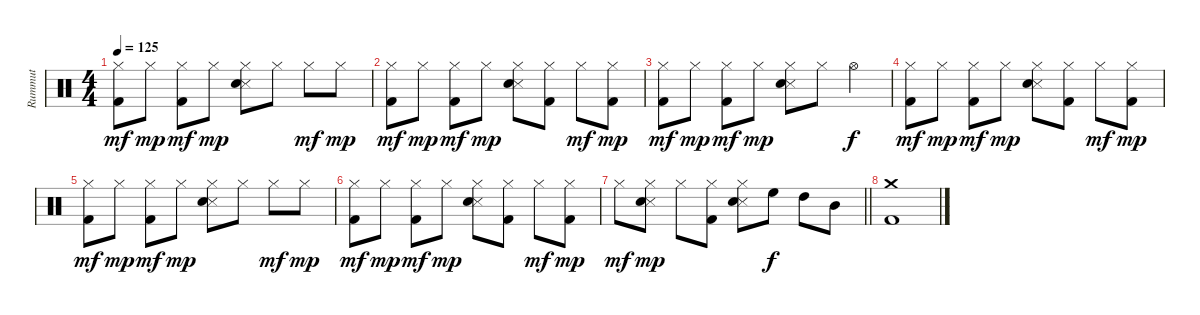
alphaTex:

\track ("Rummut" "Rummut") {instrument percussion}
\staff {score}
\articulation defaults
\ts (4 4)
\tempo 125
\clef neutral
\ks c
("Hi-Hat (closed)" "Kick (hit) 2").8{dy mf} "Hi-Hat (closed)".8{dy mp} ("Hi-Hat (closed)" "Kick (hit) 2").8{dy mf} "Hi-Hat (closed)".8{dy mp} ("Hi-Hat (closed)" "Snare (side stick) 3" "Electric Snare (hit)").8 "Hi-Hat (closed)".8 "Hi-Hat (closed)".8{dy mf} "Hi-Hat (closed)".8{dy mp} |
("Hi-Hat (closed)" "Kick (hit) 2").8{dy mf} "Hi-Hat (closed)".8{dy mp} ("Hi-Hat (closed)" "Kick (hit) 2").8{dy mf} "Hi-Hat (closed)".8{dy mp} ("Hi-Hat (closed)" "Snare (side stick) 3" "Electric Snare (hit)").8 ("Hi-Hat (closed)" "Kick (hit) 2").8 "Hi-Hat (closed)".8{dy mf} ("Hi-Hat (closed)" "Kick (hit) 2").8{dy mp} |
("Hi-Hat (closed)" "Kick (hit) 2").8{dy mf} "Hi-Hat (closed)".8{dy mp} ("Hi-Hat (closed)" "Kick (hit) 2").8{dy mf} "Hi-Hat (closed)".8{dy mp} ("Hi-Hat (closed)" "Snare (side stick) 3" "Electric Snare (hit)").8 "Hi-Hat (closed)".8 "Hi-Hat (open)".4{dy f} |
("Hi-Hat (closed)" "Kick (hit) 2").8{dy mf} "Hi-Hat (closed)".8{dy mp} ("Hi-Hat (closed)" "Kick (hit) 2").8{dy mf} "Hi-Hat (closed)".8{dy mp} ("Hi-Hat (closed)" "Snare (side stick) 3" "Electric Snare (hit)").8 ("Hi-Hat (closed)" "Kick (hit) 2").8 "Hi-Hat (closed)".8{dy mf} ("Hi-Hat (closed)" "Kick (hit) 2").8{dy mp} |
("Hi-Hat (closed)" "Kick (hit) 2").8{dy mf} "Hi-Hat (closed)".8{dy mp} ("Hi-Hat (closed)" "Kick (hit) 2").8{dy mf} "Hi-Hat (closed)".8{dy mp} ("Hi-Hat (closed)" "Snare (side stick) 3" "Electric Snare (hit)").8 "Hi-Hat (closed)".8 "Hi-Hat (closed)".8{dy mf} "Hi-Hat (closed)".8{dy mp} |
("Hi-Hat (closed)" "Kick (hit) 2").8{dy mf} "Hi-Hat (closed)".8{dy mp} ("Hi-Hat (closed)" "Kick (hit) 2").8{dy mf} "Hi-Hat (closed)".8{dy mp} ("Hi-Hat (closed)" "Snare (side stick) 3" "Electric Snare (hit)").8 ("Hi-Hat (closed)" "Kick (hit) 2").8 "Hi-Hat (closed)".8{dy mf} ("Hi-Hat (closed)" "Kick (hit) 2").8{dy mp} |
\barLineRight lightlight "Hi-Hat (closed)".8{dy mf}
("Hi-Hat (closed)" "Snare (side stick) 3" "Electric Snare (hit)").8{dy mp} "Hi-Hat (closed)".8 ("Hi-Hat (closed)" "Kick (hit) 2").8 ("Hi-Hat (closed)" "Snare (side stick) 3" "Electric Snare (hit)").8 "High Floor Tom (hit)".8{dy f} "High Tom (hit)".8 "Mid Tom (hit)".8 |
\section ("" "")
("Crash medium (hit)" "Kick (hit) 2").1
